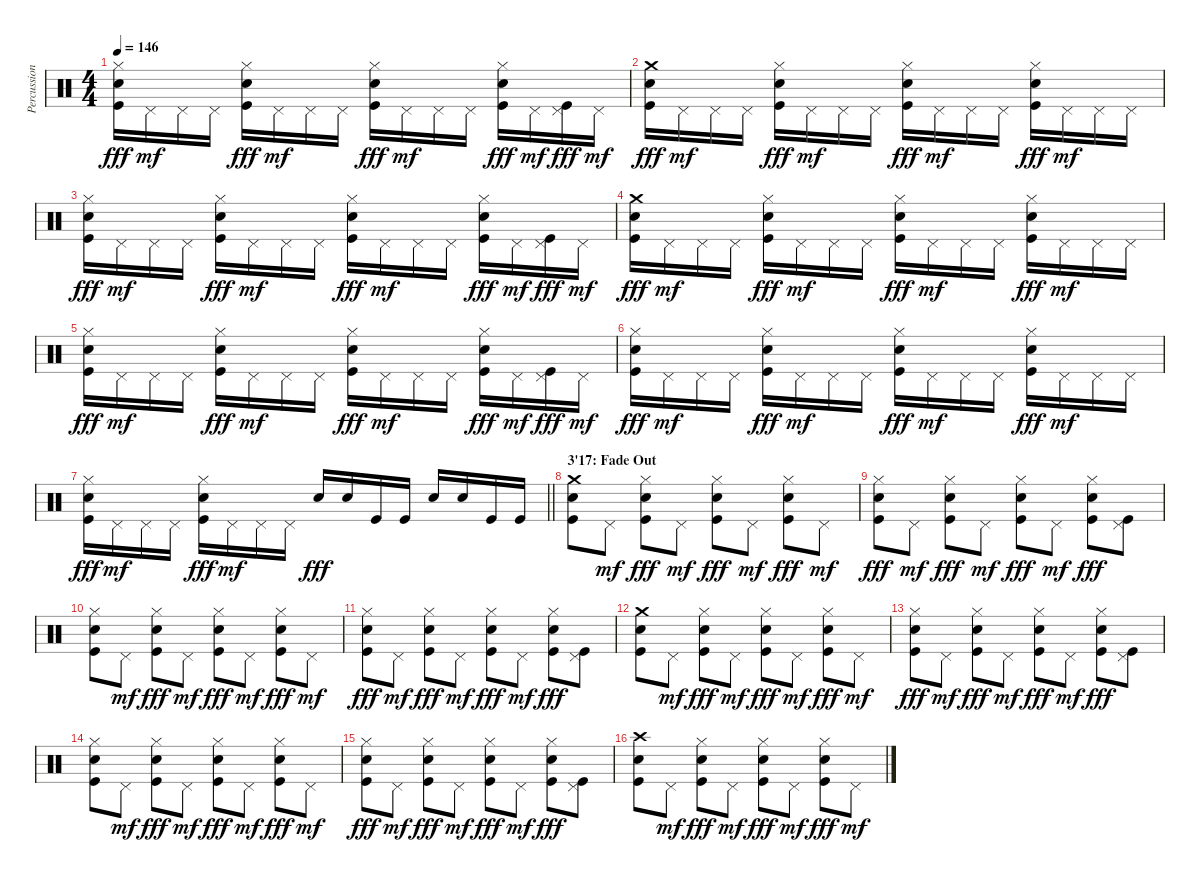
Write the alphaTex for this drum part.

\track ("Percussions" "Percussion") {instrument percussion}
\staff {score}
\articulation defaults
\ts (4 4)
\tempo 146
\clef neutral
\ks c
("Hi-Hat (closed)" "Snare (hit) 2" "Kick (hit)").16{dy fff} "Pedal Hi-Hat (hit)".16{dy mf} "Pedal Hi-Hat (hit)".16 "Pedal Hi-Hat (hit)".16 ("Hi-Hat (closed)" "Snare (hit) 2" "Kick (hit)").16{dy fff} "Pedal Hi-Hat (hit)".16{dy mf} "Pedal Hi-Hat (hit)".16 "Pedal Hi-Hat (hit)".16 ("Hi-Hat (closed)" "Snare (hit) 2" "Kick (hit)").16{dy fff} "Pedal Hi-Hat (hit)".16{dy mf} "Pedal Hi-Hat (hit)".16 "Pedal Hi-Hat (hit)".16 ("Hi-Hat (closed)" "Snare (hit) 2" "Kick (hit)").16{dy fff} "Pedal Hi-Hat (hit)".16{dy mf} ("Pedal Hi-Hat (hit)" "Kick (hit)").16{dy fff} "Pedal Hi-Hat (hit)".16{dy mf} |
("Crash medium (hit)" "Snare (hit) 2" "Kick (hit)").16{dy fff} "Pedal Hi-Hat (hit)".16{dy mf} "Pedal Hi-Hat (hit)".16 "Pedal Hi-Hat (hit)".16 ("Hi-Hat (closed)" "Snare (hit) 2" "Kick (hit)").16{dy fff} "Pedal Hi-Hat (hit)".16{dy mf} "Pedal Hi-Hat (hit)".16 "Pedal Hi-Hat (hit)".16 ("Hi-Hat (closed)" "Snare (hit) 2" "Kick (hit)").16{dy fff} "Pedal Hi-Hat (hit)".16{dy mf} "Pedal Hi-Hat (hit)".16 "Pedal Hi-Hat (hit)".16 ("Hi-Hat (closed)" "Snare (hit) 2" "Kick (hit)").16{dy fff} "Pedal Hi-Hat (hit)".16{dy mf} "Pedal Hi-Hat (hit)".16 "Pedal Hi-Hat (hit)".16 |
("Hi-Hat (closed)" "Snare (hit) 2" "Kick (hit)").16{dy fff} "Pedal Hi-Hat (hit)".16{dy mf} "Pedal Hi-Hat (hit)".16 "Pedal Hi-Hat (hit)".16 ("Hi-Hat (closed)" "Snare (hit) 2" "Kick (hit)").16{dy fff} "Pedal Hi-Hat (hit)".16{dy mf} "Pedal Hi-Hat (hit)".16 "Pedal Hi-Hat (hit)".16 ("Hi-Hat (closed)" "Snare (hit) 2" "Kick (hit)").16{dy fff} "Pedal Hi-Hat (hit)".16{dy mf} "Pedal Hi-Hat (hit)".16 "Pedal Hi-Hat (hit)".16 ("Hi-Hat (closed)" "Snare (hit) 2" "Kick (hit)").16{dy fff} "Pedal Hi-Hat (hit)".16{dy mf} ("Pedal Hi-Hat (hit)" "Kick (hit)").16{dy fff} "Pedal Hi-Hat (hit)".16{dy mf} |
("Crash medium (hit)" "Snare (hit) 2" "Kick (hit)").16{dy fff} "Pedal Hi-Hat (hit)".16{dy mf} "Pedal Hi-Hat (hit)".16 "Pedal Hi-Hat (hit)".16 ("Hi-Hat (closed)" "Snare (hit) 2" "Kick (hit)").16{dy fff} "Pedal Hi-Hat (hit)".16{dy mf} "Pedal Hi-Hat (hit)".16 "Pedal Hi-Hat (hit)".16 ("Hi-Hat (closed)" "Snare (hit) 2" "Kick (hit)").16{dy fff} "Pedal Hi-Hat (hit)".16{dy mf} "Pedal Hi-Hat (hit)".16 "Pedal Hi-Hat (hit)".16 ("Hi-Hat (closed)" "Snare (hit) 2" "Kick (hit)").16{dy fff} "Pedal Hi-Hat (hit)".16{dy mf} "Pedal Hi-Hat (hit)".16 "Pedal Hi-Hat (hit)".16 |
("Hi-Hat (closed)" "Snare (hit) 2" "Kick (hit)").16{dy fff} "Pedal Hi-Hat (hit)".16{dy mf} "Pedal Hi-Hat (hit)".16 "Pedal Hi-Hat (hit)".16 ("Hi-Hat (closed)" "Snare (hit) 2" "Kick (hit)").16{dy fff} "Pedal Hi-Hat (hit)".16{dy mf} "Pedal Hi-Hat (hit)".16 "Pedal Hi-Hat (hit)".16 ("Hi-Hat (closed)" "Snare (hit) 2" "Kick (hit)").16{dy fff} "Pedal Hi-Hat (hit)".16{dy mf} "Pedal Hi-Hat (hit)".16 "Pedal Hi-Hat (hit)".16 ("Hi-Hat (closed)" "Snare (hit) 2" "Kick (hit)").16{dy fff} "Pedal Hi-Hat (hit)".16{dy mf} ("Pedal Hi-Hat (hit)" "Kick (hit)").16{dy fff} "Pedal Hi-Hat (hit)".16{dy mf} |
("Hi-Hat (closed)" "Snare (hit) 2" "Kick (hit)").16{dy fff} "Pedal Hi-Hat (hit)".16{dy mf} "Pedal Hi-Hat (hit)".16 "Pedal Hi-Hat (hit)".16 ("Hi-Hat (closed)" "Snare (hit) 2" "Kick (hit)").16{dy fff} "Pedal Hi-Hat (hit)".16{dy mf} "Pedal Hi-Hat (hit)".16 "Pedal Hi-Hat (hit)".16 ("Hi-Hat (closed)" "Snare (hit) 2" "Kick (hit)").16{dy fff} "Pedal Hi-Hat (hit)".16{dy mf} "Pedal Hi-Hat (hit)".16 "Pedal Hi-Hat (hit)".16 ("Hi-Hat (closed)" "Snare (hit) 2" "Kick (hit)").16{dy fff} "Pedal Hi-Hat (hit)".16{dy mf} "Pedal Hi-Hat (hit)".16 "Pedal Hi-Hat (hit)".16 |
\barLineRight lightlight
("Hi-Hat (closed)" "Snare (hit) 2" "Kick (hit)").16{dy fff} "Pedal Hi-Hat (hit)".16{dy mf} "Pedal Hi-Hat (hit)".16 "Pedal Hi-Hat (hit)".16 ("Hi-Hat (closed)" "Snare (hit) 2" "Kick (hit)").16{dy fff} "Pedal Hi-Hat (hit)".16{dy mf} "Pedal Hi-Hat (hit)".16 "Pedal Hi-Hat (hit)".16 "Snare (hit) 2".16{dy fff} "Snare (hit) 2".16 "Kick (hit)".16 "Kick (hit)".16 "Snare (hit) 2".16 "Snare (hit) 2".16 "Kick (hit)".16 "Kick (hit)".16 |
\section ("" "3'17: Fade Out")
("Crash medium (hit)" "Snare (hit) 2" "Kick (hit)").8{volume 10} "Pedal Hi-Hat (hit)".8{dy mf} ("Hi-Hat (closed)" "Snare (hit) 2" "Kick (hit)").8{dy fff} "Pedal Hi-Hat (hit)".8{dy mf} ("Hi-Hat (closed)" "Snare (hit) 2" "Kick (hit)").8{dy fff} "Pedal Hi-Hat (hit)".8{dy mf} ("Hi-Hat (closed)" "Snare (hit) 2" "Kick (hit)").8{dy fff} "Pedal Hi-Hat (hit)".8{dy mf} |
("Hi-Hat (closed)" "Snare (hit) 2" "Kick (hit)").8{dy fff} "Pedal Hi-Hat (hit)".8{dy mf} ("Hi-Hat (closed)" "Snare (hit) 2" "Kick (hit)").8{dy fff} "Pedal Hi-Hat (hit)".8{dy mf} ("Hi-Hat (closed)" "Snare (hit) 2" "Kick (hit)").8{dy fff} "Pedal Hi-Hat (hit)".8{dy mf} ("Hi-Hat (closed)" "Snare (hit) 2" "Kick (hit)").8{dy fff} ("Pedal Hi-Hat (hit)" "Kick (hit)").8 |
("Hi-Hat (closed)" "Snare (hit) 2" "Kick (hit)").8 "Pedal Hi-Hat (hit)".8{dy mf} ("Hi-Hat (closed)" "Snare (hit) 2" "Kick (hit)").8{dy fff} "Pedal Hi-Hat (hit)".8{dy mf} ("Hi-Hat (closed)" "Snare (hit) 2" "Kick (hit)").8{dy fff} "Pedal Hi-Hat (hit)".8{dy mf} ("Hi-Hat (closed)" "Snare (hit) 2" "Kick (hit)").8{dy fff} "Pedal Hi-Hat (hit)".8{dy mf} |
("Hi-Hat (closed)" "Snare (hit) 2" "Kick (hit)").8{dy fff} "Pedal Hi-Hat (hit)".8{dy mf} ("Hi-Hat (closed)" "Snare (hit) 2" "Kick (hit)").8{dy fff} "Pedal Hi-Hat (hit)".8{dy mf} ("Hi-Hat (closed)" "Snare (hit) 2" "Kick (hit)").8{dy fff} "Pedal Hi-Hat (hit)".8{dy mf} ("Hi-Hat (closed)" "Snare (hit) 2" "Kick (hit)").8{dy fff} ("Pedal Hi-Hat (hit)" "Kick (hit)").8 |
("Crash medium (hit)" "Snare (hit) 2" "Kick (hit)").8{volume 5} "Pedal Hi-Hat (hit)".8{dy mf} ("Hi-Hat (closed)" "Snare (hit) 2" "Kick (hit)").8{dy fff} "Pedal Hi-Hat (hit)".8{dy mf} ("Hi-Hat (closed)" "Snare (hit) 2" "Kick (hit)").8{dy fff} "Pedal Hi-Hat (hit)".8{dy mf} ("Hi-Hat (closed)" "Snare (hit) 2" "Kick (hit)").8{dy fff} "Pedal Hi-Hat (hit)".8{dy mf} |
("Hi-Hat (closed)" "Snare (hit) 2" "Kick (hit)").8{dy fff} "Pedal Hi-Hat (hit)".8{dy mf} ("Hi-Hat (closed)" "Snare (hit) 2" "Kick (hit)").8{dy fff} "Pedal Hi-Hat (hit)".8{dy mf} ("Hi-Hat (closed)" "Snare (hit) 2" "Kick (hit)").8{dy fff} "Pedal Hi-Hat (hit)".8{dy mf} ("Hi-Hat (closed)" "Snare (hit) 2" "Kick (hit)").8{dy fff} ("Pedal Hi-Hat (hit)" "Kick (hit)").8 |
("Hi-Hat (closed)" "Snare (hit) 2" "Kick (hit)").8 "Pedal Hi-Hat (hit)".8{dy mf} ("Hi-Hat (closed)" "Snare (hit) 2" "Kick (hit)").8{dy fff} "Pedal Hi-Hat (hit)".8{dy mf} ("Hi-Hat (closed)" "Snare (hit) 2" "Kick (hit)").8{dy fff} "Pedal Hi-Hat (hit)".8{dy mf} ("Hi-Hat (closed)" "Snare (hit) 2" "Kick (hit)").8{dy fff} "Pedal Hi-Hat (hit)".8{dy mf} |
("Hi-Hat (closed)" "Snare (hit) 2" "Kick (hit)").8{dy fff} "Pedal Hi-Hat (hit)".8{dy mf} ("Hi-Hat (closed)" "Snare (hit) 2" "Kick (hit)").8{dy fff} "Pedal Hi-Hat (hit)".8{dy mf} ("Hi-Hat (closed)" "Snare (hit) 2" "Kick (hit)").8{dy fff} "Pedal Hi-Hat (hit)".8{dy mf} ("Hi-Hat (closed)" "Snare (hit) 2" "Kick (hit)").8{dy fff} ("Pedal Hi-Hat (hit)" "Kick (hit)").8 |
("Crash high (hit)" "Snare (hit) 2" "Kick (hit)").8{volume 3} "Pedal Hi-Hat (hit)".8{dy mf} ("Hi-Hat (closed)" "Snare (hit) 2" "Kick (hit)").8{dy fff} "Pedal Hi-Hat (hit)".8{dy mf} ("Hi-Hat (closed)" "Snare (hit) 2" "Kick (hit)").8{dy fff} "Pedal Hi-Hat (hit)".8{dy mf} ("Hi-Hat (closed)" "Snare (hit) 2" "Kick (hit)").8{dy fff} "Pedal Hi-Hat (hit)".8{dy mf}
